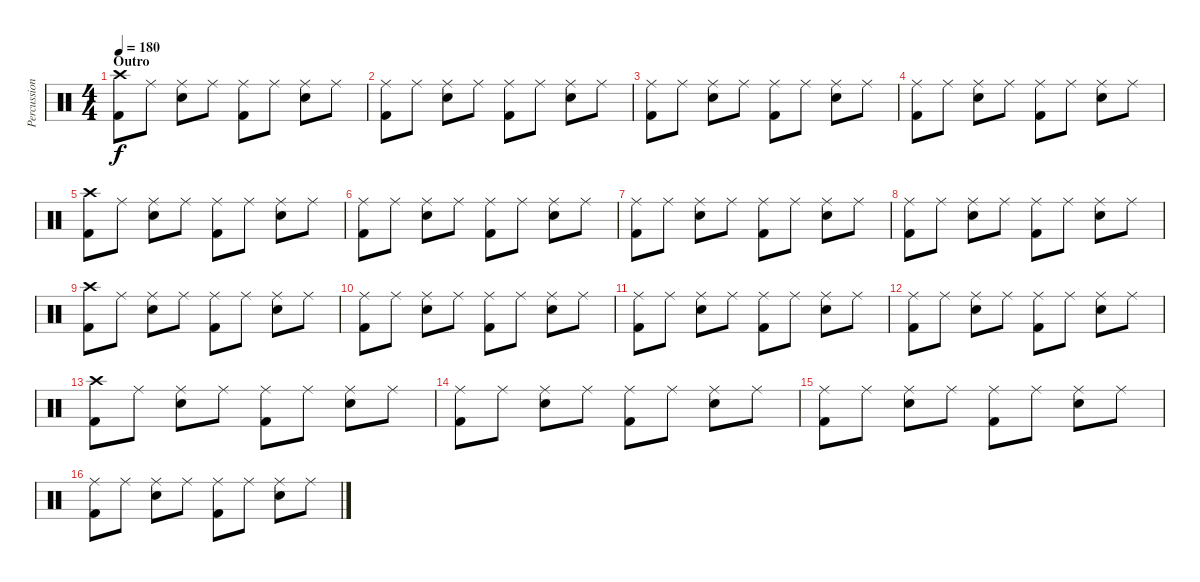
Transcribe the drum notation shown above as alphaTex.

\track ("Percussion" "Percussion") {instrument percussion}
\staff {score}
\articulation defaults
\ts (4 4)
\section ("" "Outro")
\tempo 180
\clef neutral
\ks c
("Crash high (hit)" "Kick (hit) 2").8{dy f} "Ride (middle)".8 ("Ride (middle)" "Snare (hit) 2").8 "Ride (middle)".8 ("Ride (middle)" "Kick (hit) 2").8 "Ride (middle)".8 ("Ride (middle)" "Snare (hit) 2").8 "Ride (middle)".8 |
("Ride (middle)" "Kick (hit) 2").8 "Ride (middle)".8 ("Ride (middle)" "Snare (hit) 2").8 "Ride (middle)".8 ("Ride (middle)" "Kick (hit) 2").8 "Ride (middle)".8 ("Ride (middle)" "Snare (hit) 2").8 "Ride (middle)".8 |
("Ride (middle)" "Kick (hit) 2").8 "Ride (middle)".8 ("Ride (middle)" "Snare (hit) 2").8 "Ride (middle)".8 ("Ride (middle)" "Kick (hit) 2").8 "Ride (middle)".8 ("Ride (middle)" "Snare (hit) 2").8 "Ride (middle)".8 |
("Ride (middle)" "Kick (hit) 2").8 "Ride (middle)".8 ("Ride (middle)" "Snare (hit) 2").8 "Ride (middle)".8 ("Ride (middle)" "Kick (hit) 2").8 "Ride (middle)".8 ("Ride (middle)" "Snare (hit) 2").8 "Ride (middle)".8 |
("Crash high (hit)" "Kick (hit) 2").8 "Ride (middle)".8 ("Ride (middle)" "Snare (hit) 2").8 "Ride (middle)".8 ("Ride (middle)" "Kick (hit) 2").8 "Ride (middle)".8 ("Ride (middle)" "Snare (hit) 2").8 "Ride (middle)".8 |
("Ride (middle)" "Kick (hit) 2").8 "Ride (middle)".8 ("Ride (middle)" "Snare (hit) 2").8 "Ride (middle)".8 ("Ride (middle)" "Kick (hit) 2").8 "Ride (middle)".8 ("Ride (middle)" "Snare (hit) 2").8 "Ride (middle)".8 |
("Ride (middle)" "Kick (hit) 2").8 "Ride (middle)".8 ("Ride (middle)" "Snare (hit) 2").8 "Ride (middle)".8 ("Ride (middle)" "Kick (hit) 2").8 "Ride (middle)".8 ("Ride (middle)" "Snare (hit) 2").8 "Ride (middle)".8 |
("Ride (middle)" "Kick (hit) 2").8 "Ride (middle)".8 ("Ride (middle)" "Snare (hit) 2").8 "Ride (middle)".8 ("Ride (middle)" "Kick (hit) 2").8 "Ride (middle)".8 ("Ride (middle)" "Snare (hit) 2").8 "Ride (middle)".8 |
("Crash high (hit)" "Kick (hit) 2").8 "Ride (middle)".8 ("Ride (middle)" "Snare (hit) 2").8 "Ride (middle)".8 ("Ride (middle)" "Kick (hit) 2").8 "Ride (middle)".8 ("Ride (middle)" "Snare (hit) 2").8 "Ride (middle)".8 |
("Ride (middle)" "Kick (hit) 2").8 "Ride (middle)".8 ("Ride (middle)" "Snare (hit) 2").8 "Ride (middle)".8 ("Ride (middle)" "Kick (hit) 2").8 "Ride (middle)".8 ("Ride (middle)" "Snare (hit) 2").8 "Ride (middle)".8 |
("Ride (middle)" "Kick (hit) 2").8 "Ride (middle)".8 ("Ride (middle)" "Snare (hit) 2").8 "Ride (middle)".8 ("Ride (middle)" "Kick (hit) 2").8 "Ride (middle)".8 ("Ride (middle)" "Snare (hit) 2").8 "Ride (middle)".8 |
("Ride (middle)" "Kick (hit) 2").8 "Ride (middle)".8 ("Ride (middle)" "Snare (hit) 2").8 "Ride (middle)".8 ("Ride (middle)" "Kick (hit) 2").8 "Ride (middle)".8 ("Ride (middle)" "Snare (hit) 2").8 "Ride (middle)".8 |
("Crash high (hit)" "Kick (hit) 2").8 "Ride (middle)".8 ("Ride (middle)" "Snare (hit) 2").8 "Ride (middle)".8 ("Ride (middle)" "Kick (hit) 2").8 "Ride (middle)".8 ("Ride (middle)" "Snare (hit) 2").8 "Ride (middle)".8 |
("Ride (middle)" "Kick (hit) 2").8 "Ride (middle)".8 ("Ride (middle)" "Snare (hit) 2").8 "Ride (middle)".8 ("Ride (middle)" "Kick (hit) 2").8 "Ride (middle)".8 ("Ride (middle)" "Snare (hit) 2").8 "Ride (middle)".8 |
("Ride (middle)" "Kick (hit) 2").8 "Ride (middle)".8 ("Ride (middle)" "Snare (hit) 2").8 "Ride (middle)".8 ("Ride (middle)" "Kick (hit) 2").8 "Ride (middle)".8 ("Ride (middle)" "Snare (hit) 2").8 "Ride (middle)".8 |
("Ride (middle)" "Kick (hit) 2").8 "Ride (middle)".8 ("Ride (middle)" "Snare (hit) 2").8 "Ride (middle)".8 ("Ride (middle)" "Kick (hit) 2").8 "Ride (middle)".8 ("Ride (middle)" "Snare (hit) 2").8 "Ride (middle)".8
